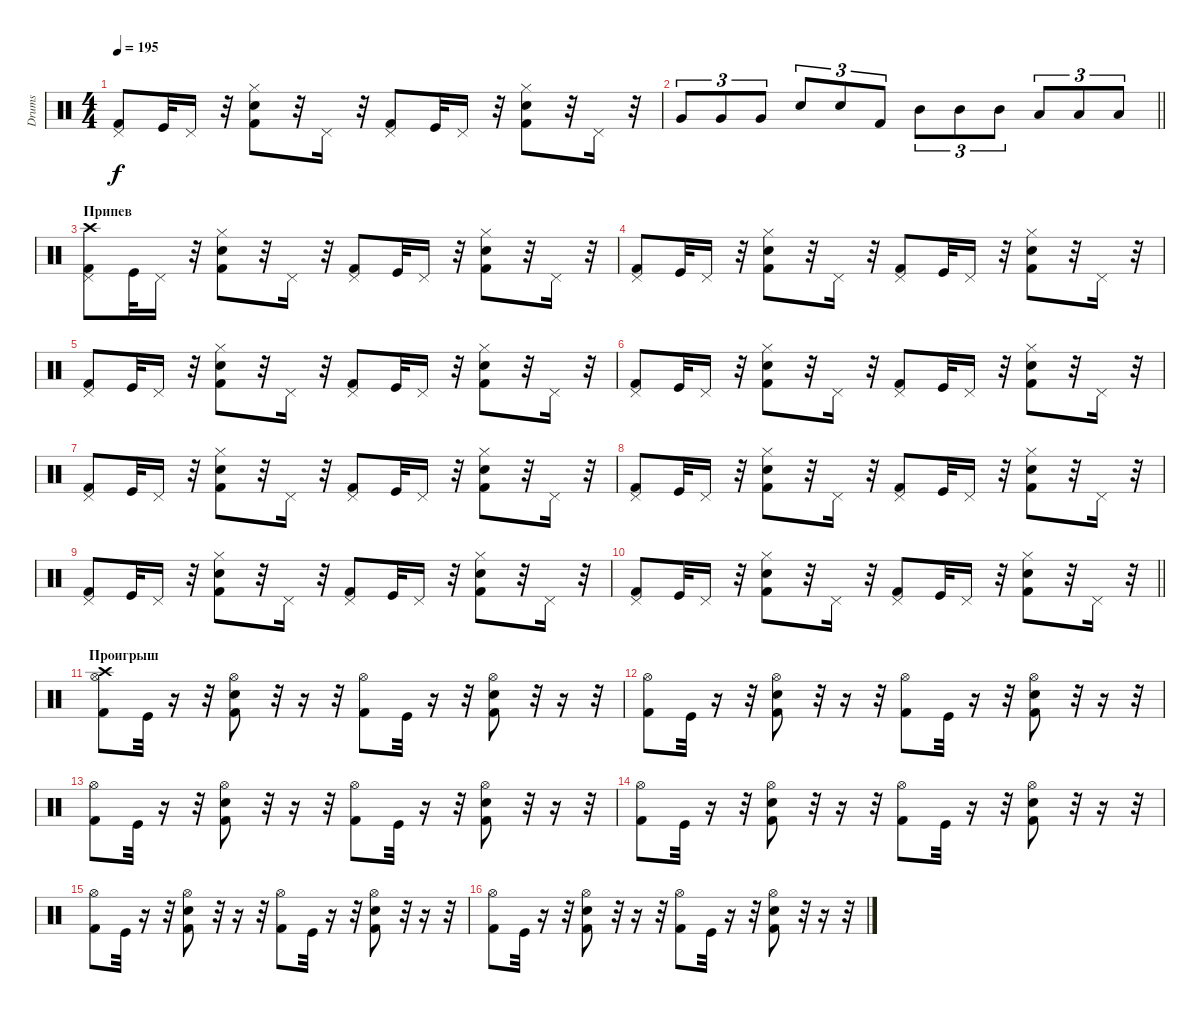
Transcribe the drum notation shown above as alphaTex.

\track ("Drums" "Drums") {instrument percussion}
\staff {score}
\articulation defaults
\ts (4 4)
\tempo 195
\clef neutral
\ks c
("Kick (hit) 2" "Pedal Hi-Hat (hit)").8{dy f} "Kick (hit)".32 "Pedal Hi-Hat (hit)".16 r.32 ("Snare (hit) 2" "Kick (hit) 2" "Hi-Hat (closed)").8 r.32 "Pedal Hi-Hat (hit)".16 r.32 ("Kick (hit) 2" "Pedal Hi-Hat (hit)").8 "Kick (hit)".32 "Pedal Hi-Hat (hit)".16 r.32 ("Snare (hit) 2" "Kick (hit) 2" "Hi-Hat (closed)").8 r.32 "Pedal Hi-Hat (hit)".16 r.32 |
\barLineRight lightlight "Very Low Tom (hit)".8{tu (3 2)} "Very Low Tom (hit)".8{tu (3 2)} "Very Low Tom (hit)".8{tu (3 2)} "Electric Snare (hit)".8{tu (3 2)} "Electric Snare (hit)".8{tu (3 2)} "Kick (hit) 2".8{tu (3 2)} "Mid Tom (hit)".8{tu (3 2)} "Mid Tom (hit)".8{tu (3 2)} "Mid Tom (hit)".8{tu (3 2)} "Low Tom (hit)".8{tu (3 2)} "Low Tom (hit)".8{tu (3 2)} "Low Tom (hit)".8{tu (3 2)}
|
\section ("" "Припев")
("Crash high (hit)" "Kick (hit) 2" "Pedal Hi-Hat (hit)").8 "Kick (hit)".32 "Pedal Hi-Hat (hit)".16 r.32 ("Snare (hit) 2" "Kick (hit) 2" "Hi-Hat (closed)").8 r.32 "Pedal Hi-Hat (hit)".16 r.32 ("Kick (hit) 2" "Pedal Hi-Hat (hit)").8 "Kick (hit)".32 "Pedal Hi-Hat (hit)".16 r.32 ("Snare (hit) 2" "Kick (hit) 2" "Hi-Hat (closed)").8 r.32 "Pedal Hi-Hat (hit)".16 r.32 |
("Kick (hit) 2" "Pedal Hi-Hat (hit)").8 "Kick (hit)".32 "Pedal Hi-Hat (hit)".16 r.32 ("Snare (hit) 2" "Kick (hit) 2" "Hi-Hat (closed)").8 r.32 "Pedal Hi-Hat (hit)".16 r.32 ("Kick (hit) 2" "Pedal Hi-Hat (hit)").8 "Kick (hit)".32 "Pedal Hi-Hat (hit)".16 r.32 ("Snare (hit) 2" "Kick (hit) 2" "Hi-Hat (closed)").8 r.32 "Pedal Hi-Hat (hit)".16 r.32 |
("Kick (hit) 2" "Pedal Hi-Hat (hit)").8 "Kick (hit)".32 "Pedal Hi-Hat (hit)".16 r.32 ("Snare (hit) 2" "Kick (hit) 2" "Hi-Hat (closed)").8 r.32 "Pedal Hi-Hat (hit)".16 r.32 ("Kick (hit) 2" "Pedal Hi-Hat (hit)").8 "Kick (hit)".32 "Pedal Hi-Hat (hit)".16 r.32 ("Snare (hit) 2" "Kick (hit) 2" "Hi-Hat (closed)").8 r.32 "Pedal Hi-Hat (hit)".16 r.32 |
("Kick (hit) 2" "Pedal Hi-Hat (hit)").8 "Kick (hit)".32 "Pedal Hi-Hat (hit)".16 r.32 ("Snare (hit) 2" "Kick (hit) 2" "Hi-Hat (closed)").8 r.32 "Pedal Hi-Hat (hit)".16 r.32 ("Kick (hit) 2" "Pedal Hi-Hat (hit)").8 "Kick (hit)".32 "Pedal Hi-Hat (hit)".16 r.32 ("Snare (hit) 2" "Kick (hit) 2" "Hi-Hat (closed)").8 r.32 "Pedal Hi-Hat (hit)".16 r.32 |
("Kick (hit) 2" "Pedal Hi-Hat (hit)").8 "Kick (hit)".32 "Pedal Hi-Hat (hit)".16 r.32 ("Snare (hit) 2" "Kick (hit) 2" "Hi-Hat (closed)").8 r.32 "Pedal Hi-Hat (hit)".16 r.32 ("Kick (hit) 2" "Pedal Hi-Hat (hit)").8 "Kick (hit)".32 "Pedal Hi-Hat (hit)".16 r.32 ("Snare (hit) 2" "Kick (hit) 2" "Hi-Hat (closed)").8 r.32 "Pedal Hi-Hat (hit)".16 r.32 |
("Kick (hit) 2" "Pedal Hi-Hat (hit)").8 "Kick (hit)".32 "Pedal Hi-Hat (hit)".16 r.32 ("Snare (hit) 2" "Kick (hit) 2" "Hi-Hat (closed)").8 r.32 "Pedal Hi-Hat (hit)".16 r.32 ("Kick (hit) 2" "Pedal Hi-Hat (hit)").8 "Kick (hit)".32 "Pedal Hi-Hat (hit)".16 r.32 ("Snare (hit) 2" "Kick (hit) 2" "Hi-Hat (closed)").8 r.32 "Pedal Hi-Hat (hit)".16 r.32 |
("Kick (hit) 2" "Pedal Hi-Hat (hit)").8 "Kick (hit)".32 "Pedal Hi-Hat (hit)".16 r.32 ("Snare (hit) 2" "Kick (hit) 2" "Hi-Hat (closed)").8 r.32 "Pedal Hi-Hat (hit)".16 r.32 ("Kick (hit) 2" "Pedal Hi-Hat (hit)").8 "Kick (hit)".32 "Pedal Hi-Hat (hit)".16 r.32 ("Snare (hit) 2" "Kick (hit) 2" "Hi-Hat (closed)").8 r.32 "Pedal Hi-Hat (hit)".16 r.32 |
\barLineRight lightlight
("Kick (hit) 2" "Pedal Hi-Hat (hit)").8 "Kick (hit)".32 "Pedal Hi-Hat (hit)".16 r.32 ("Snare (hit) 2" "Kick (hit) 2" "Hi-Hat (closed)").8 r.32 "Pedal Hi-Hat (hit)".16 r.32 ("Kick (hit) 2" "Pedal Hi-Hat (hit)").8 "Kick (hit)".32 "Pedal Hi-Hat (hit)".16 r.32 ("Snare (hit) 2" "Kick (hit) 2" "Hi-Hat (closed)").8 r.32 "Pedal Hi-Hat (hit)".16 r.32 |
\section ("" "Проигрыш")
("Crash high (hit)" "Kick (hit) 2" "Hi-Hat (open)").8 "Kick (hit)".32 r.16 r.32 ("Snare (hit) 2" "Kick (hit) 2" "Hi-Hat (open)").8 r.32 r.16 r.32 ("Kick (hit) 2" "Hi-Hat (open)").8 "Kick (hit)".32 r.16 r.32 ("Snare (hit) 2" "Kick (hit) 2" "Hi-Hat (open)").8 r.32 r.16 r.32 |
("Kick (hit) 2" "Hi-Hat (open)").8 "Kick (hit)".32 r.16 r.32 ("Snare (hit) 2" "Kick (hit) 2" "Hi-Hat (open)").8 r.32 r.16 r.32 ("Kick (hit) 2" "Hi-Hat (open)").8 "Kick (hit)".32 r.16 r.32 ("Snare (hit) 2" "Kick (hit) 2" "Hi-Hat (open)").8 r.32 r.16 r.32 |
("Kick (hit) 2" "Hi-Hat (open)").8 "Kick (hit)".32 r.16 r.32 ("Snare (hit) 2" "Kick (hit) 2" "Hi-Hat (open)").8 r.32 r.16 r.32 ("Kick (hit) 2" "Hi-Hat (open)").8 "Kick (hit)".32 r.16 r.32 ("Snare (hit) 2" "Kick (hit) 2" "Hi-Hat (open)").8 r.32 r.16 r.32 |
("Kick (hit) 2" "Hi-Hat (open)").8 "Kick (hit)".32 r.16 r.32 ("Snare (hit) 2" "Kick (hit) 2" "Hi-Hat (open)").8 r.32 r.16 r.32 ("Kick (hit) 2" "Hi-Hat (open)").8 "Kick (hit)".32 r.16 r.32 ("Snare (hit) 2" "Kick (hit) 2" "Hi-Hat (open)").8 r.32 r.16 r.32 |
("Kick (hit) 2" "Hi-Hat (open)").8 "Kick (hit)".32 r.16 r.32 ("Snare (hit) 2" "Kick (hit) 2" "Hi-Hat (open)").8 r.32 r.16 r.32 ("Kick (hit) 2" "Hi-Hat (open)").8 "Kick (hit)".32 r.16 r.32 ("Snare (hit) 2" "Kick (hit) 2" "Hi-Hat (open)").8 r.32 r.16 r.32 |
("Kick (hit) 2" "Hi-Hat (open)").8 "Kick (hit)".32 r.16 r.32 ("Snare (hit) 2" "Kick (hit) 2" "Hi-Hat (open)").8 r.32 r.16 r.32 ("Kick (hit) 2" "Hi-Hat (open)").8 "Kick (hit)".32 r.16 r.32 ("Snare (hit) 2" "Kick (hit) 2" "Hi-Hat (open)").8 r.32 r.16 r.32
